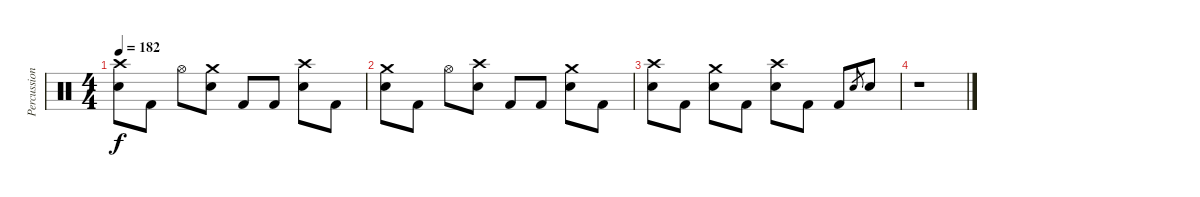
\track ("Percussion" "Percussion") {instrument percussion}
\staff {score}
\articulation defaults
\ts (4 4)
\tempo 182
\clef neutral
\ks c
("Crash high (hit)" "Electric Snare (hit)").8{dy f} "Kick (hit) 2".8 "Hi-Hat (open)".8 ("Crash medium (hit)" "Electric Snare (hit)").8 "Kick (hit) 2".8 "Kick (hit) 2".8 ("Crash high (hit)" "Electric Snare (hit)").8 "Kick (hit) 2".8 |
("Crash medium (hit)" "Electric Snare (hit)").8 "Kick (hit) 2".8 "Hi-Hat (open)".8 ("Crash high (hit)" "Electric Snare (hit)").8 "Kick (hit) 2".8 "Kick (hit) 2".8 ("Crash medium (hit)" "Electric Snare (hit)").8 "Kick (hit) 2".8 |
("Crash high (hit)" "Electric Snare (hit)").8 "Kick (hit) 2".8 ("Crash medium (hit)" "Electric Snare (hit)").8 "Kick (hit) 2".8 ("Crash high (hit)" "Electric Snare (hit)").8 "Kick (hit) 2".8 "Kick (hit) 2".8 "Electric Snare (hit)".8{gr} "Electric Snare (hit)".8 |
r.1
